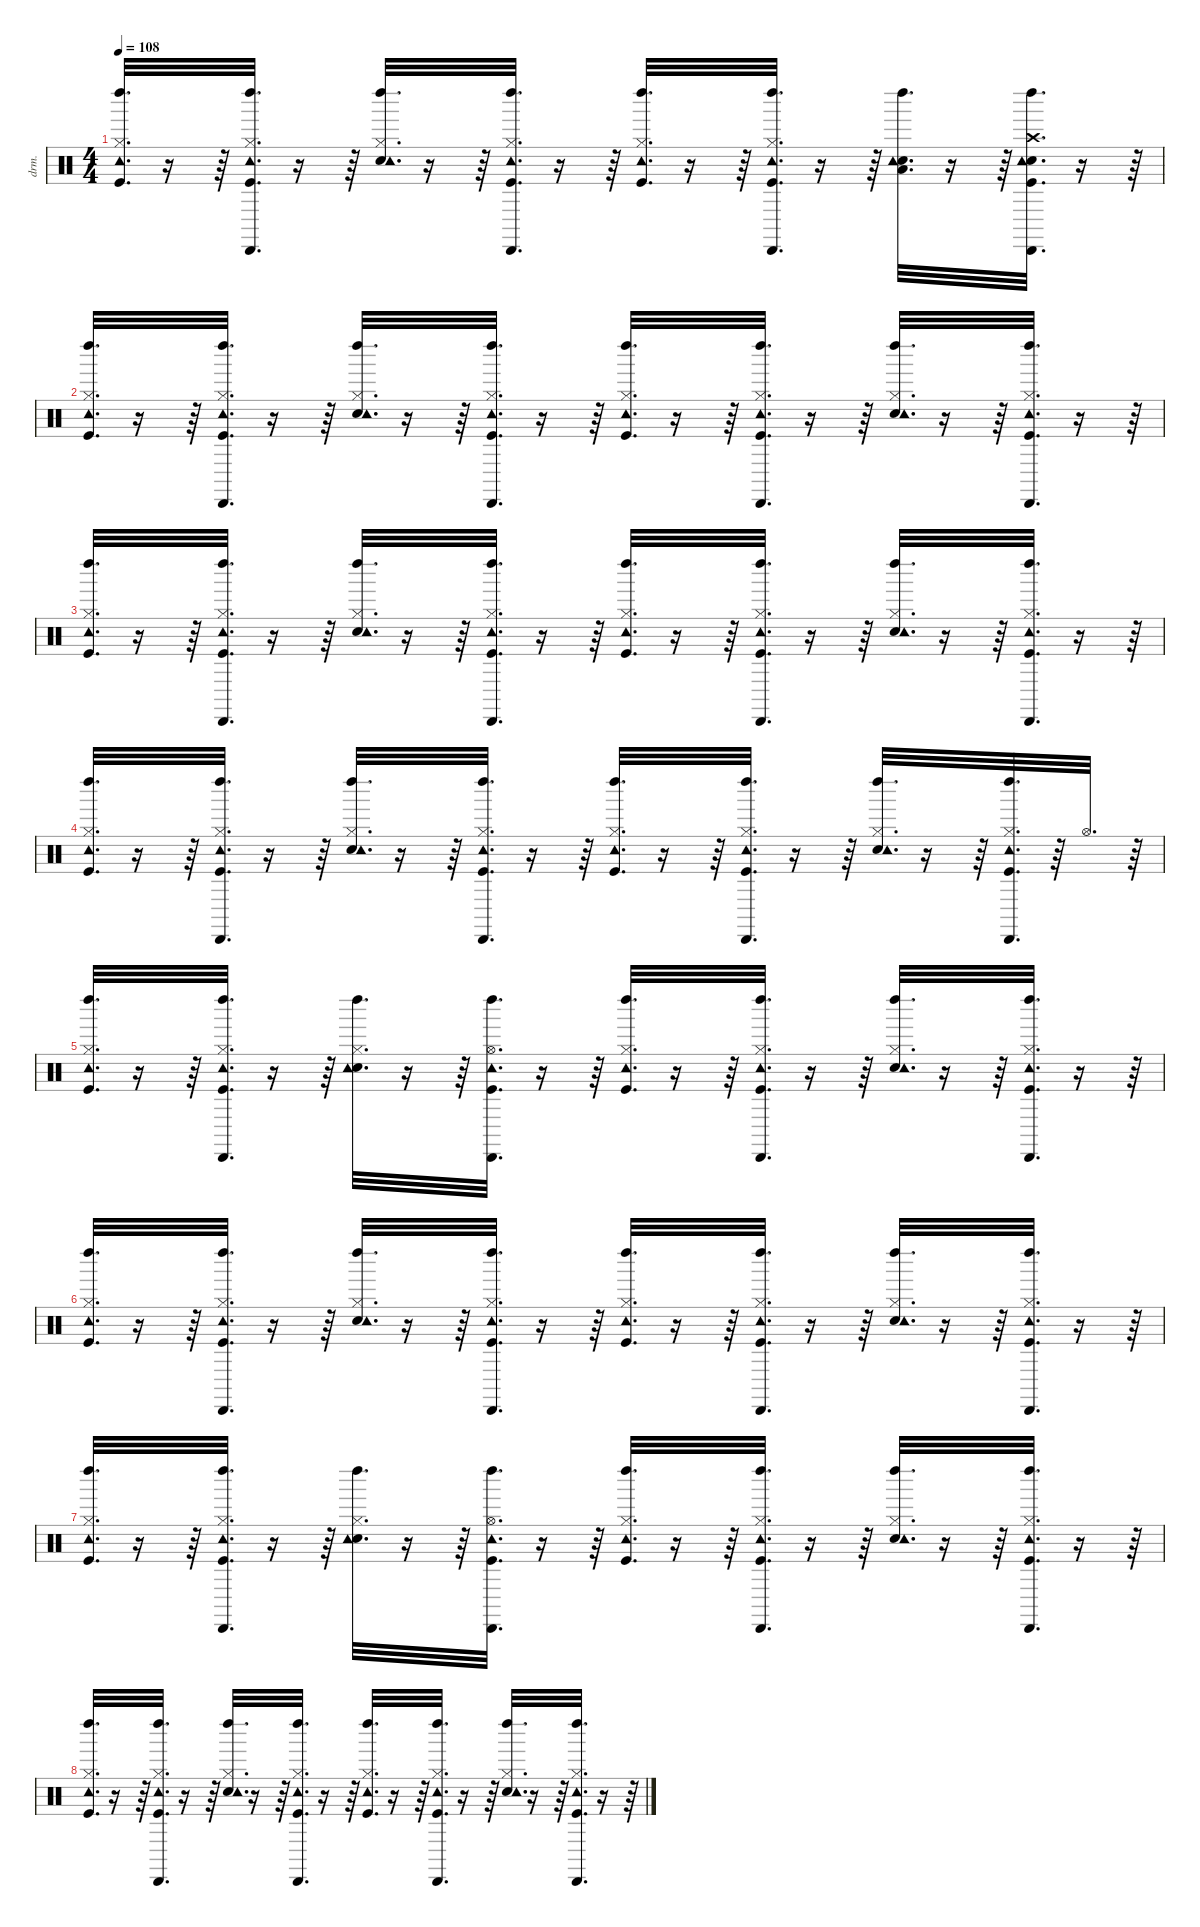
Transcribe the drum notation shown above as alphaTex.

\defaultSystemsLayout 4
\hideDynamics
\bracketExtendMode nobrackets
\otherSystemsTrackNameOrientation horizontal
\track ("Percussions" "drm.") {instrument percussion}
\staff {score}
\articulation defaults
\ts (4 4)
\tempo 108
\clef neutral
\ks c
("Left Maraca (hit)" "Kick (hit)" "Hi-Hat (closed)" "Tambourine (hit)").32{d dy f} r.16 r.64 ("Cabasa (hit)" "Tambourine (hit)" "Kick (hit)" "Hi-Hat (closed)" "Left Maraca (hit)").32{d} r.16 r.64 ("Left Maraca (hit)" "Snare (hit) 2" "Hi-Hat (closed)" "Tambourine (hit)").32{d} r.16 r.64 ("Cabasa (hit)" "Tambourine (hit)" "Kick (hit)" "Hi-Hat (closed)" "Left Maraca (hit)").32{d} r.16 r.64 ("Left Maraca (hit)" "Kick (hit)" "Hi-Hat (closed)" "Tambourine (hit)").32{d} r.16 r.64 ("Cabasa (hit)" "Tambourine (hit)" "Kick (hit)" "Hi-Hat (closed)" "Left Maraca (hit)").32{d} r.16 r.64 ("Left Maraca (hit)" "Snare (hit) 2" "Low Floor Tom (hit)" "Tambourine (hit)").32{d} r.16 r.64 ("Cabasa (hit)" "Snare (hit) 2" "Crash high (hit)" "Kick (hit)" "Left Maraca (hit)" "Tambourine (hit)").32{d} r.16 r.64 |
("Left Maraca (hit)" "Kick (hit)" "Hi-Hat (closed)" "Tambourine (hit)").32{d} r.16 r.64 ("Cabasa (hit)" "Tambourine (hit)" "Kick (hit)" "Hi-Hat (closed)" "Left Maraca (hit)").32{d} r.16 r.64 ("Left Maraca (hit)" "Snare (hit) 2" "Hi-Hat (closed)" "Tambourine (hit)").32{d} r.16 r.64 ("Cabasa (hit)" "Tambourine (hit)" "Kick (hit)" "Hi-Hat (closed)" "Left Maraca (hit)").32{d} r.16 r.64 ("Left Maraca (hit)" "Kick (hit)" "Hi-Hat (closed)" "Tambourine (hit)").32{d} r.16 r.64 ("Cabasa (hit)" "Tambourine (hit)" "Kick (hit)" "Hi-Hat (closed)" "Left Maraca (hit)").32{d} r.16 r.64 ("Left Maraca (hit)" "Snare (hit) 2" "Hi-Hat (closed)" "Tambourine (hit)").32{d} r.16 r.64 ("Cabasa (hit)" "Tambourine (hit)" "Kick (hit)" "Hi-Hat (closed)" "Left Maraca (hit)").32{d} r.16 r.64 |
("Left Maraca (hit)" "Kick (hit)" "Hi-Hat (closed)" "Tambourine (hit)").32{d} r.16 r.64 ("Cabasa (hit)" "Tambourine (hit)" "Kick (hit)" "Hi-Hat (closed)" "Left Maraca (hit)").32{d} r.16 r.64 ("Left Maraca (hit)" "Snare (hit) 2" "Hi-Hat (closed)" "Tambourine (hit)").32{d} r.16 r.64 ("Cabasa (hit)" "Tambourine (hit)" "Kick (hit)" "Hi-Hat (closed)" "Left Maraca (hit)").32{d} r.16 r.64 ("Left Maraca (hit)" "Kick (hit)" "Hi-Hat (closed)" "Tambourine (hit)").32{d} r.16 r.64 ("Cabasa (hit)" "Tambourine (hit)" "Kick (hit)" "Hi-Hat (closed)" "Left Maraca (hit)").32{d} r.16 r.64 ("Left Maraca (hit)" "Snare (hit) 2" "Hi-Hat (closed)" "Tambourine (hit)").32{d} r.16 r.64 ("Cabasa (hit)" "Tambourine (hit)" "Kick (hit)" "Hi-Hat (closed)" "Left Maraca (hit)").32{d} r.16 r.64 |
("Left Maraca (hit)" "Kick (hit)" "Hi-Hat (closed)" "Tambourine (hit)").32{d} r.16 r.64 ("Cabasa (hit)" "Tambourine (hit)" "Kick (hit)" "Hi-Hat (closed)" "Left Maraca (hit)").32{d} r.16 r.64 ("Left Maraca (hit)" "Snare (hit) 2" "Hi-Hat (closed)" "Tambourine (hit)").32{d} r.16 r.64 ("Cabasa (hit)" "Tambourine (hit)" "Kick (hit)" "Hi-Hat (closed)" "Left Maraca (hit)").32{d} r.16 r.64 ("Left Maraca (hit)" "Kick (hit)" "Hi-Hat (closed)" "Tambourine (hit)").32{d} r.16 r.64 ("Cabasa (hit)" "Tambourine (hit)" "Kick (hit)" "Hi-Hat (closed)" "Left Maraca (hit)").32{d} r.16 r.64 ("Left Maraca (hit)" "Snare (hit) 2" "Hi-Hat (closed)" "Tambourine (hit)").32{d} r.16 r.64 ("Cabasa (hit)" "Tambourine (hit)" "Kick (hit)" "Hi-Hat (closed)" "Left Maraca (hit)").32{d} r.64 "Hi-Hat (open)".32{d} r.64 |
("Left Maraca (hit)" "Kick (hit)" "Hi-Hat (closed)" "Tambourine (hit)").32{d} r.16 r.64 ("Cabasa (hit)" "Tambourine (hit)" "Kick (hit)" "Hi-Hat (closed)" "Left Maraca (hit)").32{d} r.16 r.64 ("Left Maraca (hit)" "Snare (hit) 2" "Hi-Hat (closed)" "Tambourine (hit)").32{d} r.16 r.64 ("Cabasa (hit)" "Tambourine (hit)" "Kick (hit)" "Hi-Hat (open)" "Left Maraca (hit)").32{d} r.16 r.64 ("Left Maraca (hit)" "Kick (hit)" "Hi-Hat (closed)" "Tambourine (hit)").32{d} r.16 r.64 ("Cabasa (hit)" "Tambourine (hit)" "Kick (hit)" "Hi-Hat (closed)" "Left Maraca (hit)").32{d} r.16 r.64 ("Left Maraca (hit)" "Snare (hit) 2" "Hi-Hat (closed)" "Tambourine (hit)").32{d} r.16 r.64 ("Cabasa (hit)" "Tambourine (hit)" "Kick (hit)" "Hi-Hat (closed)" "Left Maraca (hit)").32{d} r.16 r.64 |
("Left Maraca (hit)" "Kick (hit)" "Hi-Hat (closed)" "Tambourine (hit)").32{d} r.16 r.64 ("Cabasa (hit)" "Tambourine (hit)" "Kick (hit)" "Hi-Hat (closed)" "Left Maraca (hit)").32{d} r.16 r.64 ("Left Maraca (hit)" "Snare (hit) 2" "Hi-Hat (closed)" "Tambourine (hit)").32{d} r.16 r.64 ("Cabasa (hit)" "Tambourine (hit)" "Kick (hit)" "Hi-Hat (closed)" "Left Maraca (hit)").32{d} r.16 r.64 ("Left Maraca (hit)" "Kick (hit)" "Hi-Hat (closed)" "Tambourine (hit)").32{d} r.16 r.64 ("Cabasa (hit)" "Tambourine (hit)" "Kick (hit)" "Hi-Hat (closed)" "Left Maraca (hit)").32{d} r.16 r.64 ("Left Maraca (hit)" "Snare (hit) 2" "Hi-Hat (closed)" "Tambourine (hit)").32{d} r.16 r.64 ("Cabasa (hit)" "Tambourine (hit)" "Kick (hit)" "Hi-Hat (closed)" "Left Maraca (hit)").32{d} r.16 r.64 |
("Left Maraca (hit)" "Kick (hit)" "Hi-Hat (closed)" "Tambourine (hit)").32{d} r.16 r.64 ("Cabasa (hit)" "Tambourine (hit)" "Kick (hit)" "Hi-Hat (closed)" "Left Maraca (hit)").32{d} r.16 r.64 ("Left Maraca (hit)" "Snare (hit) 2" "Hi-Hat (closed)" "Tambourine (hit)").32{d} r.16 r.64 ("Cabasa (hit)" "Tambourine (hit)" "Kick (hit)" "Hi-Hat (open)" "Left Maraca (hit)").32{d} r.16 r.64 ("Left Maraca (hit)" "Kick (hit)" "Hi-Hat (closed)" "Tambourine (hit)").32{d} r.16 r.64 ("Cabasa (hit)" "Tambourine (hit)" "Kick (hit)" "Hi-Hat (closed)" "Left Maraca (hit)").32{d} r.16 r.64 ("Left Maraca (hit)" "Snare (hit) 2" "Hi-Hat (closed)" "Tambourine (hit)").32{d} r.16 r.64 ("Cabasa (hit)" "Tambourine (hit)" "Kick (hit)" "Hi-Hat (closed)" "Left Maraca (hit)").32{d} r.16 r.64 |
("Left Maraca (hit)" "Kick (hit)" "Hi-Hat (closed)" "Tambourine (hit)").32{d} r.16 r.64 ("Cabasa (hit)" "Tambourine (hit)" "Kick (hit)" "Hi-Hat (closed)" "Left Maraca (hit)").32{d} r.16 r.64 ("Left Maraca (hit)" "Snare (hit) 2" "Hi-Hat (closed)" "Tambourine (hit)").32{d} r.16 r.64 ("Cabasa (hit)" "Tambourine (hit)" "Kick (hit)" "Hi-Hat (closed)" "Left Maraca (hit)").32{d} r.16 r.64 ("Left Maraca (hit)" "Kick (hit)" "Hi-Hat (closed)" "Tambourine (hit)").32{d} r.16 r.64 ("Cabasa (hit)" "Tambourine (hit)" "Kick (hit)" "Hi-Hat (closed)" "Left Maraca (hit)").32{d} r.16 r.64 ("Left Maraca (hit)" "Snare (hit) 2" "Hi-Hat (closed)" "Tambourine (hit)").32{d} r.16 r.64 ("Cabasa (hit)" "Tambourine (hit)" "Kick (hit)" "Hi-Hat (closed)" "Left Maraca (hit)").32{d} r.16 r.64
